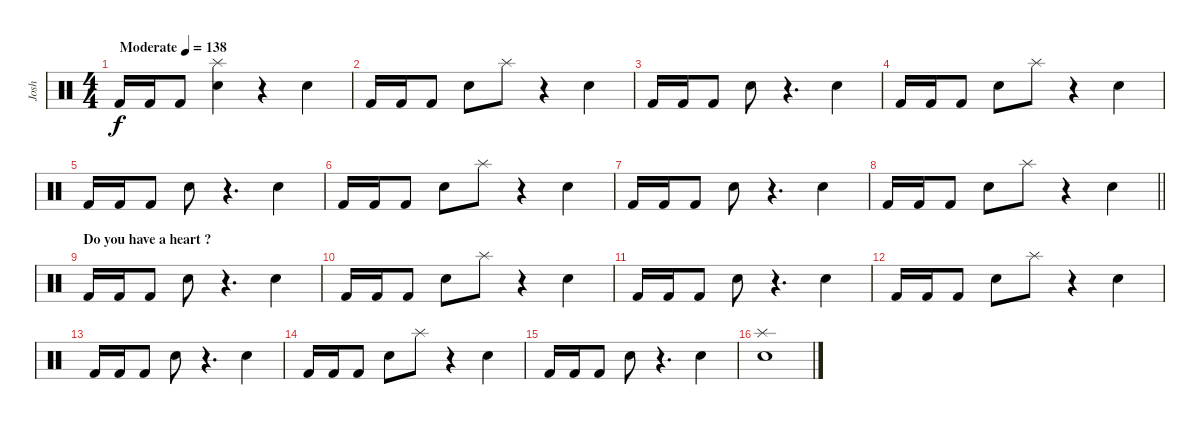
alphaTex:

\track ("Josh" "Josh") {instrument percussion}
\staff {score}
\articulation defaults
\ts (4 4)
\tempo (138 "Moderate")
\clef neutral
\ks c "Kick (hit) 2".16{dy f} "Kick (hit) 2".16 "Kick (hit) 2".8
("Splash (hit)" "Electric Snare (hit)").4 r.4 "Electric Snare (hit)".4 |
"Kick (hit) 2".16 "Kick (hit) 2".16 "Kick (hit) 2".8 "Electric Snare (hit)".8 "Splash (hit)".8 r.4 "Electric Snare (hit)".4 |
"Kick (hit) 2".16 "Kick (hit) 2".16 "Kick (hit) 2".8 "Electric Snare (hit)".8 r.4{d} "Electric Snare (hit)".4 |
"Kick (hit) 2".16 "Kick (hit) 2".16 "Kick (hit) 2".8 "Electric Snare (hit)".8 "Splash (hit)".8 r.4 "Electric Snare (hit)".4 |
"Kick (hit) 2".16 "Kick (hit) 2".16 "Kick (hit) 2".8 "Electric Snare (hit)".8 r.4{d} "Electric Snare (hit)".4 |
"Kick (hit) 2".16 "Kick (hit) 2".16 "Kick (hit) 2".8 "Electric Snare (hit)".8 "Splash (hit)".8 r.4 "Electric Snare (hit)".4 |
"Kick (hit) 2".16 "Kick (hit) 2".16 "Kick (hit) 2".8 "Electric Snare (hit)".8 r.4{d} "Electric Snare (hit)".4 |
\barLineRight lightlight "Kick (hit) 2".16 "Kick (hit) 2".16 "Kick (hit) 2".8 "Electric Snare (hit)".8 "Splash (hit)".8
r.4 "Electric Snare (hit)".4 |
\section ("" "Do you have a heart ?")
"Kick (hit) 2".16 "Kick (hit) 2".16 "Kick (hit) 2".8 "Electric Snare (hit)".8 r.4{d} "Electric Snare (hit)".4 |
"Kick (hit) 2".16 "Kick (hit) 2".16 "Kick (hit) 2".8 "Electric Snare (hit)".8 "Splash (hit)".8 r.4 "Electric Snare (hit)".4 |
"Kick (hit) 2".16 "Kick (hit) 2".16 "Kick (hit) 2".8 "Electric Snare (hit)".8 r.4{d} "Electric Snare (hit)".4 |
"Kick (hit) 2".16 "Kick (hit) 2".16 "Kick (hit) 2".8 "Electric Snare (hit)".8 "Splash (hit)".8 r.4 "Electric Snare (hit)".4 |
"Kick (hit) 2".16 "Kick (hit) 2".16 "Kick (hit) 2".8 "Electric Snare (hit)".8 r.4{d} "Electric Snare (hit)".4 |
"Kick (hit) 2".16 "Kick (hit) 2".16 "Kick (hit) 2".8 "Electric Snare (hit)".8 "Splash (hit)".8 r.4 "Electric Snare (hit)".4 |
"Kick (hit) 2".16 "Kick (hit) 2".16 "Kick (hit) 2".8 "Electric Snare (hit)".8 r.4{d} "Electric Snare (hit)".4 |
("Splash (hit)" "Electric Snare (hit)").1
